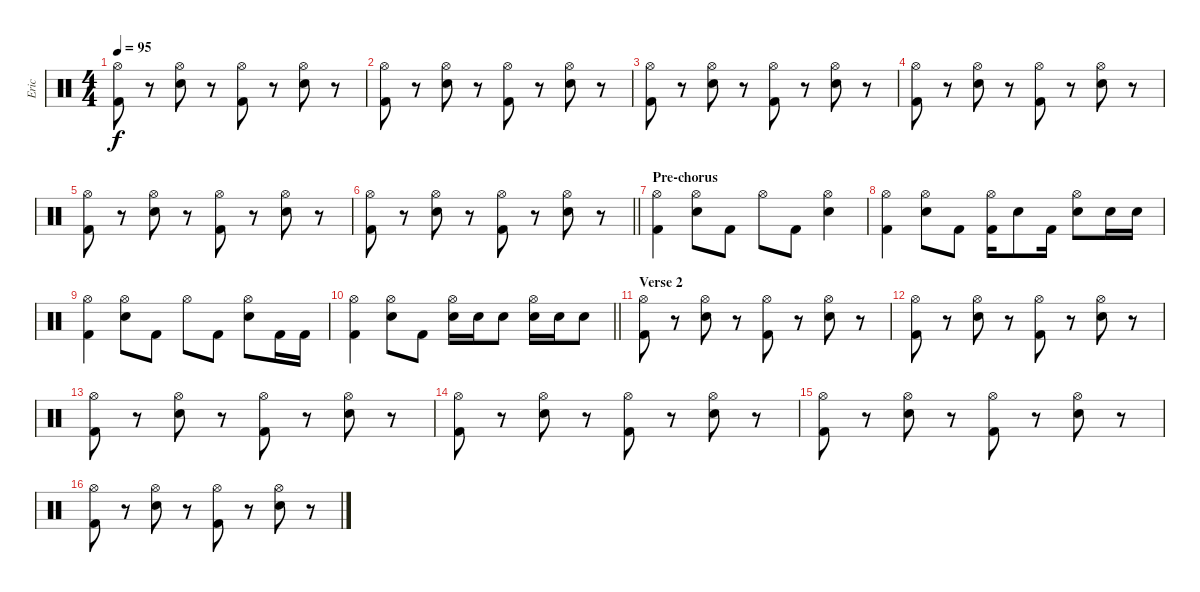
\track ("Eric" "Eric") {instrument percussion}
\staff {score}
\articulation defaults
\ts (4 4)
\tempo 95
\clef neutral
\ks c
("Hi-Hat (open)" "Kick (hit) 2").8{dy f} r.8 ("Hi-Hat (open)" "Electric Snare (hit)").8 r.8 ("Hi-Hat (open)" "Kick (hit) 2").8 r.8 ("Hi-Hat (open)" "Electric Snare (hit)").8 r.8 |
("Hi-Hat (open)" "Kick (hit) 2").8 r.8 ("Hi-Hat (open)" "Electric Snare (hit)").8 r.8 ("Hi-Hat (open)" "Kick (hit) 2").8 r.8 ("Hi-Hat (open)" "Electric Snare (hit)").8 r.8 |
("Hi-Hat (open)" "Kick (hit) 2").8 r.8 ("Hi-Hat (open)" "Electric Snare (hit)").8 r.8 ("Hi-Hat (open)" "Kick (hit) 2").8 r.8 ("Hi-Hat (open)" "Electric Snare (hit)").8 r.8 |
("Hi-Hat (open)" "Kick (hit) 2").8 r.8 ("Hi-Hat (open)" "Electric Snare (hit)").8 r.8 ("Hi-Hat (open)" "Kick (hit) 2").8 r.8 ("Hi-Hat (open)" "Electric Snare (hit)").8 r.8 |
("Hi-Hat (open)" "Kick (hit) 2").8 r.8 ("Hi-Hat (open)" "Electric Snare (hit)").8 r.8 ("Hi-Hat (open)" "Kick (hit) 2").8 r.8 ("Hi-Hat (open)" "Electric Snare (hit)").8 r.8 |
\barLineRight lightlight
("Hi-Hat (open)" "Kick (hit) 2").8 r.8 ("Hi-Hat (open)" "Electric Snare (hit)").8 r.8 ("Hi-Hat (open)" "Kick (hit) 2").8 r.8 ("Hi-Hat (open)" "Electric Snare (hit)").8 r.8 |
\section ("" "Pre-chorus")
("Hi-Hat (open)" "Kick (hit) 2").4 ("Hi-Hat (open)" "Electric Snare (hit)").8 "Kick (hit) 2".8 "Hi-Hat (open)".8 "Kick (hit) 2".8 ("Hi-Hat (open)" "Electric Snare (hit)").4 |
("Hi-Hat (open)" "Kick (hit) 2").4 ("Hi-Hat (open)" "Electric Snare (hit)").8 "Kick (hit) 2".8 ("Hi-Hat (open)" "Kick (hit) 2").16 "Electric Snare (hit)".8 "Kick (hit) 2".16 ("Hi-Hat (open)" "Electric Snare (hit)").8 "Electric Snare (hit)".16 "Electric Snare (hit)".16 |
("Hi-Hat (open)" "Kick (hit) 2").4 ("Hi-Hat (open)" "Electric Snare (hit)").8 "Kick (hit) 2".8 "Hi-Hat (open)".8 "Kick (hit) 2".8 ("Hi-Hat (open)" "Electric Snare (hit)").8 "Kick (hit) 2".16 "Kick (hit) 2".16 |
\barLineRight lightlight
("Hi-Hat (open)" "Kick (hit) 2").4 ("Hi-Hat (open)" "Electric Snare (hit)").8 "Kick (hit) 2".8 ("Hi-Hat (open)" "Electric Snare (hit)").16 "Electric Snare (hit)".16 "Electric Snare (hit)".8 ("Hi-Hat (open)" "Electric Snare (hit)").16 "Electric Snare (hit)".16 "Electric Snare (hit)".8 |
\section ("" "Verse 2")
("Hi-Hat (open)" "Kick (hit) 2").8 r.8 ("Hi-Hat (open)" "Electric Snare (hit)").8 r.8 ("Hi-Hat (open)" "Kick (hit) 2").8 r.8 ("Hi-Hat (open)" "Electric Snare (hit)").8 r.8 |
("Hi-Hat (open)" "Kick (hit) 2").8 r.8 ("Hi-Hat (open)" "Electric Snare (hit)").8 r.8 ("Hi-Hat (open)" "Kick (hit) 2").8 r.8 ("Hi-Hat (open)" "Electric Snare (hit)").8 r.8 |
("Hi-Hat (open)" "Kick (hit) 2").8 r.8 ("Hi-Hat (open)" "Electric Snare (hit)").8 r.8 ("Hi-Hat (open)" "Kick (hit) 2").8 r.8 ("Hi-Hat (open)" "Electric Snare (hit)").8 r.8 |
("Hi-Hat (open)" "Kick (hit) 2").8 r.8 ("Hi-Hat (open)" "Electric Snare (hit)").8 r.8 ("Hi-Hat (open)" "Kick (hit) 2").8 r.8 ("Hi-Hat (open)" "Electric Snare (hit)").8 r.8 |
("Hi-Hat (open)" "Kick (hit) 2").8 r.8 ("Hi-Hat (open)" "Electric Snare (hit)").8 r.8 ("Hi-Hat (open)" "Kick (hit) 2").8 r.8 ("Hi-Hat (open)" "Electric Snare (hit)").8 r.8 |
("Hi-Hat (open)" "Kick (hit) 2").8 r.8 ("Hi-Hat (open)" "Electric Snare (hit)").8 r.8 ("Hi-Hat (open)" "Kick (hit) 2").8 r.8 ("Hi-Hat (open)" "Electric Snare (hit)").8 r.8
